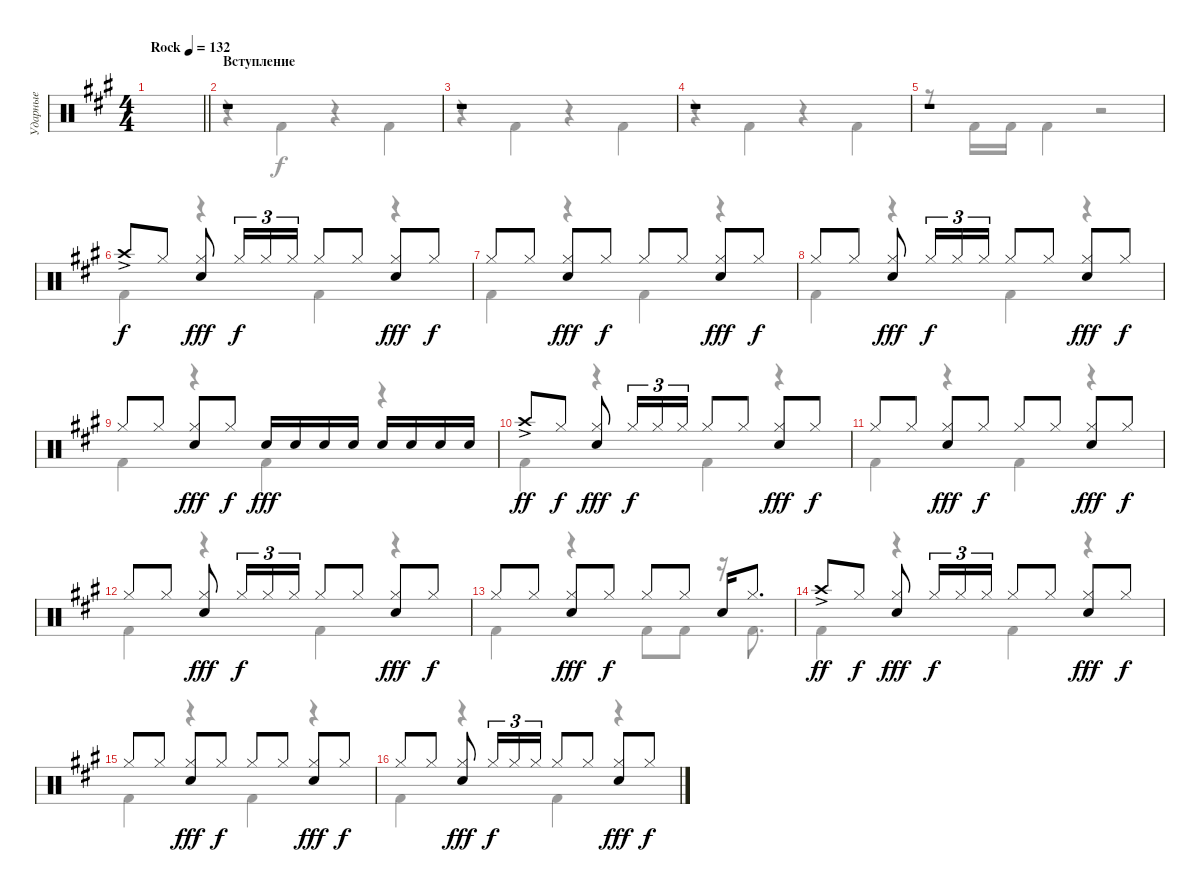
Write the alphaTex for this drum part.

\track ("Ударные" "Ударные") {instrument percussion}
\staff {score}
\articulation defaults
\voice
\ts (4 4)
\tempo (132 "Rock")
\clef neutral
\barLineRight lightlight
\ks a
|
\section ("" "Вступление")
r.1 |
r.1 |
r.1 |
r.1 |
"Crash high (hit)"{ac}.8 "Hi-Hat (closed)".8{dy f} ("Hi-Hat (closed)" "Electric Snare (hit)").8{dy fff} "Hi-Hat (closed)".16{tu (3 2) dy f} "Hi-Hat (closed)".16{tu (3 2)} "Hi-Hat (closed)".16{tu (3 2)} "Hi-Hat (closed)".8 "Hi-Hat (closed)".8 ("Hi-Hat (closed)" "Electric Snare (hit)").8{dy fff} "Hi-Hat (closed)".8{dy f} |
"Hi-Hat (closed)".8 "Hi-Hat (closed)".8 ("Hi-Hat (closed)" "Electric Snare (hit)").8{dy fff} "Hi-Hat (closed)".8{dy f} "Hi-Hat (closed)".8 "Hi-Hat (closed)".8 ("Hi-Hat (closed)" "Electric Snare (hit)").8{dy fff} "Hi-Hat (closed)".8{dy f} |
"Hi-Hat (closed)".8 "Hi-Hat (closed)".8 ("Hi-Hat (closed)" "Electric Snare (hit)").8{dy fff} "Hi-Hat (closed)".16{tu (3 2) dy f} "Hi-Hat (closed)".16{tu (3 2)} "Hi-Hat (closed)".16{tu (3 2)} "Hi-Hat (closed)".8 "Hi-Hat (closed)".8 ("Hi-Hat (closed)" "Electric Snare (hit)").8{dy fff} "Hi-Hat (closed)".8{dy f} |
"Hi-Hat (closed)".8 "Hi-Hat (closed)".8 ("Hi-Hat (closed)" "Electric Snare (hit)").8{dy fff} "Hi-Hat (closed)".8{dy f} "Electric Snare (hit)".16{dy fff} "Electric Snare (hit)".16 "Electric Snare (hit)".16 "Electric Snare (hit)".16 "Electric Snare (hit)".16 "Electric Snare (hit)".16 "Electric Snare (hit)".16 "Electric Snare (hit)".16 |
"Crash high (hit)"{ac}.8{dy ff} "Hi-Hat (closed)".8{dy f} ("Hi-Hat (closed)" "Electric Snare (hit)").8{dy fff} "Hi-Hat (closed)".16{tu (3 2) dy f} "Hi-Hat (closed)".16{tu (3 2)} "Hi-Hat (closed)".16{tu (3 2)} "Hi-Hat (closed)".8 "Hi-Hat (closed)".8 ("Hi-Hat (closed)" "Electric Snare (hit)").8{dy fff} "Hi-Hat (closed)".8{dy f} |
"Hi-Hat (closed)".8 "Hi-Hat (closed)".8 ("Hi-Hat (closed)" "Electric Snare (hit)").8{dy fff} "Hi-Hat (closed)".8{dy f} "Hi-Hat (closed)".8 "Hi-Hat (closed)".8 ("Hi-Hat (closed)" "Electric Snare (hit)").8{dy fff} "Hi-Hat (closed)".8{dy f} |
"Hi-Hat (closed)".8 "Hi-Hat (closed)".8 ("Hi-Hat (closed)" "Electric Snare (hit)").8{dy fff} "Hi-Hat (closed)".16{tu (3 2) dy f} "Hi-Hat (closed)".16{tu (3 2)} "Hi-Hat (closed)".16{tu (3 2)} "Hi-Hat (closed)".8 "Hi-Hat (closed)".8 ("Hi-Hat (closed)" "Electric Snare (hit)").8{dy fff} "Hi-Hat (closed)".8{dy f} |
"Hi-Hat (closed)".8 "Hi-Hat (closed)".8 ("Hi-Hat (closed)" "Electric Snare (hit)").8{dy fff} "Hi-Hat (closed)".8{dy f} "Hi-Hat (closed)".8 "Hi-Hat (closed)".8 "Electric Snare (hit)".16 "Hi-Hat (closed)".8{d} |
"Crash high (hit)"{ac}.8{dy ff} "Hi-Hat (closed)".8{dy f} ("Hi-Hat (closed)" "Electric Snare (hit)").8{dy fff} "Hi-Hat (closed)".16{tu (3 2) dy f} "Hi-Hat (closed)".16{tu (3 2)} "Hi-Hat (closed)".16{tu (3 2)} "Hi-Hat (closed)".8 "Hi-Hat (closed)".8 ("Hi-Hat (closed)" "Electric Snare (hit)").8{dy fff} "Hi-Hat (closed)".8{dy f} |
"Hi-Hat (closed)".8 "Hi-Hat (closed)".8 ("Hi-Hat (closed)" "Electric Snare (hit)").8{dy fff} "Hi-Hat (closed)".8{dy f} "Hi-Hat (closed)".8 "Hi-Hat (closed)".8 ("Hi-Hat (closed)" "Electric Snare (hit)").8{dy fff} "Hi-Hat (closed)".8{dy f} |
"Hi-Hat (closed)".8 "Hi-Hat (closed)".8 ("Hi-Hat (closed)" "Electric Snare (hit)").8{dy fff} "Hi-Hat (closed)".16{tu (3 2) dy f} "Hi-Hat (closed)".16{tu (3 2)} "Hi-Hat (closed)".16{tu (3 2)} "Hi-Hat (closed)".8 "Hi-Hat (closed)".8 ("Hi-Hat (closed)" "Electric Snare (hit)").8{dy fff} "Hi-Hat (closed)".8{dy f}
\voice
\clef neutral
\ottava regular
\simile none
\barLineRight lightlight
\ks a
|
r.4 "Kick (hit) 2".4 r.4 "Kick (hit) 2".4 |
r.4 "Kick (hit) 2".4 r.4 "Kick (hit) 2".4 |
r.4 "Kick (hit) 2".4 r.4 "Kick (hit) 2".4 |
r.8 "Kick (hit) 2".16 "Kick (hit) 2".16 "Kick (hit) 2".4 r.2 |
"Kick (hit) 2".4 r.4 "Kick (hit) 2".4 r.4 |
"Kick (hit) 2".4 r.4 "Kick (hit) 2".4 r.4 |
"Kick (hit) 2".4 r.4 "Kick (hit) 2".4 r.4 |
"Kick (hit) 2".4 r.4 "Kick (hit) 2".4 r.4 |
"Kick (hit) 2".4 r.4 "Kick (hit) 2".4 r.4 |
"Kick (hit) 2".4 r.4 "Kick (hit) 2".4 r.4 |
"Kick (hit) 2".4 r.4 "Kick (hit) 2".4 r.4 |
"Kick (hit) 2".4 r.4 "Kick (hit) 2".8 "Kick (hit) 2".8 r.16 "Kick (hit) 2".8{d} |
"Kick (hit) 2".4 r.4 "Kick (hit) 2".4 r.4 |
"Kick (hit) 2".4 r.4 "Kick (hit) 2".4 r.4 |
"Kick (hit) 2".4 r.4 "Kick (hit) 2".4 r.4
